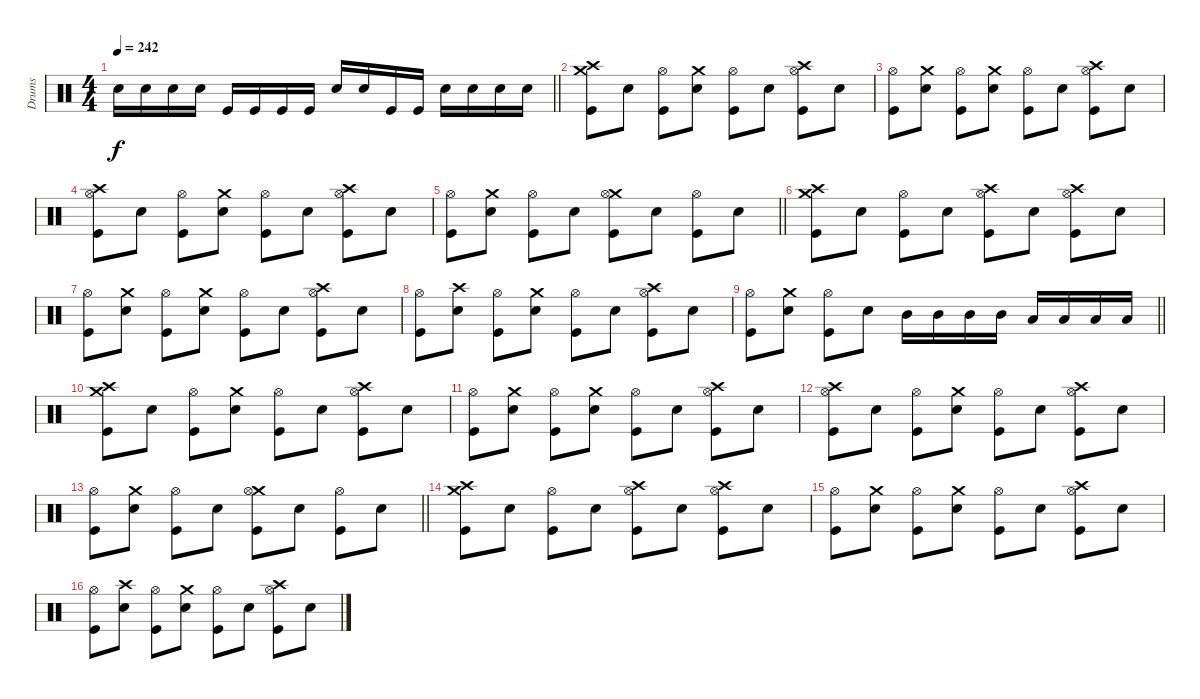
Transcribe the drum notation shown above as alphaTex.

\track ("Drums" "Drums") {instrument percussion}
\staff
\articulation defaults
\ts (4 4)
\tempo 242
\clef neutral
\barLineRight lightlight
\ks c "Electric Snare (hit)".16{dy f} "Electric Snare (hit)".16 "Electric Snare (hit)".16 "Electric Snare (hit)".16 "Kick (hit)".16 "Kick (hit)".16 "Kick (hit)".16 "Kick (hit)".16 "Electric Snare (hit)".16 "Electric Snare (hit)".16 "Kick (hit)".16 "Kick (hit)".16 "Electric Snare (hit)".16 "Electric Snare (hit)".16 "Electric Snare (hit)".16 "Electric Snare (hit)".16
|
\section ("" "")
("Crash high (hit)" "Crash medium (hit)" "Kick (hit)").8 "Electric Snare (hit)".8 ("Hi-Hat (open)" "Kick (hit)").8 ("Crash medium (hit)" "Electric Snare (hit)").8 ("Hi-Hat (open)" "Kick (hit)").8 "Electric Snare (hit)".8 ("Crash high (hit)" "Hi-Hat (open)" "Kick (hit)").8 "Electric Snare (hit)".8 |
("Hi-Hat (open)" "Kick (hit)").8 ("Crash medium (hit)" "Electric Snare (hit)").8 ("Hi-Hat (open)" "Kick (hit)").8 ("Crash medium (hit)" "Electric Snare (hit)").8 ("Hi-Hat (open)" "Kick (hit)").8 "Electric Snare (hit)".8 ("Crash high (hit)" "Hi-Hat (open)" "Kick (hit)").8 "Electric Snare (hit)".8 |
("Crash high (hit)" "Hi-Hat (open)" "Kick (hit)").8 "Electric Snare (hit)".8 ("Hi-Hat (open)" "Kick (hit)").8 ("Crash medium (hit)" "Electric Snare (hit)").8 ("Hi-Hat (open)" "Kick (hit)").8 "Electric Snare (hit)".8 ("Crash high (hit)" "Hi-Hat (open)" "Kick (hit)").8 "Electric Snare (hit)".8 |
\barLineRight lightlight
("Hi-Hat (open)" "Kick (hit)").8 ("Crash medium (hit)" "Electric Snare (hit)").8 ("Hi-Hat (open)" "Kick (hit)").8 "Electric Snare (hit)".8 ("Crash medium (hit)" "Hi-Hat (open)" "Kick (hit)").8 "Electric Snare (hit)".8 ("Hi-Hat (open)" "Kick (hit)").8 "Electric Snare (hit)".8 |
("Crash high (hit)" "Crash medium (hit)" "Kick (hit)").8 "Electric Snare (hit)".8 ("Hi-Hat (open)" "Kick (hit)").8 "Electric Snare (hit)".8 ("Crash high (hit)" "Hi-Hat (open)" "Kick (hit)").8 "Electric Snare (hit)".8 ("Crash high (hit)" "Hi-Hat (open)" "Kick (hit)").8 "Electric Snare (hit)".8 |
("Hi-Hat (open)" "Kick (hit)").8 ("Crash medium (hit)" "Electric Snare (hit)").8 ("Hi-Hat (open)" "Kick (hit)").8 ("Crash medium (hit)" "Electric Snare (hit)").8 ("Hi-Hat (open)" "Kick (hit)").8 "Electric Snare (hit)".8 ("Crash high (hit)" "Hi-Hat (open)" "Kick (hit)").8 "Electric Snare (hit)".8 |
("Hi-Hat (open)" "Kick (hit)").8 ("Crash high (hit)" "Electric Snare (hit)").8 ("Hi-Hat (open)" "Kick (hit)").8 ("Crash medium (hit)" "Electric Snare (hit)").8 ("Hi-Hat (open)" "Kick (hit)").8 "Electric Snare (hit)".8 ("Crash high (hit)" "Hi-Hat (open)" "Kick (hit)").8 "Electric Snare (hit)".8 |
\barLineRight lightlight
("Hi-Hat (open)" "Kick (hit)").8 ("Crash medium (hit)" "Electric Snare (hit)").8 ("Hi-Hat (open)" "Kick (hit)").8 "Electric Snare (hit)".8 "Mid Tom (hit)".16 "Mid Tom (hit)".16 "Mid Tom (hit)".16 "Mid Tom (hit)".16 "Low Tom (hit)".16 "Low Tom (hit)".16 "Low Tom (hit)".16 "Low Tom (hit)".16 |
("Crash high (hit)" "Crash medium (hit)" "Kick (hit)").8 "Electric Snare (hit)".8 ("Hi-Hat (open)" "Kick (hit)").8 ("Crash medium (hit)" "Electric Snare (hit)").8 ("Hi-Hat (open)" "Kick (hit)").8 "Electric Snare (hit)".8 ("Crash high (hit)" "Hi-Hat (open)" "Kick (hit)").8 "Electric Snare (hit)".8 |
("Hi-Hat (open)" "Kick (hit)").8 ("Crash medium (hit)" "Electric Snare (hit)").8 ("Hi-Hat (open)" "Kick (hit)").8 ("Crash medium (hit)" "Electric Snare (hit)").8 ("Hi-Hat (open)" "Kick (hit)").8 "Electric Snare (hit)".8 ("Crash high (hit)" "Hi-Hat (open)" "Kick (hit)").8 "Electric Snare (hit)".8 |
("Crash high (hit)" "Hi-Hat (open)" "Kick (hit)").8 "Electric Snare (hit)".8 ("Hi-Hat (open)" "Kick (hit)").8 ("Crash medium (hit)" "Electric Snare (hit)").8 ("Hi-Hat (open)" "Kick (hit)").8 "Electric Snare (hit)".8 ("Crash high (hit)" "Hi-Hat (open)" "Kick (hit)").8 "Electric Snare (hit)".8 |
\barLineRight lightlight
("Hi-Hat (open)" "Kick (hit)").8 ("Crash medium (hit)" "Electric Snare (hit)").8 ("Hi-Hat (open)" "Kick (hit)").8 "Electric Snare (hit)".8 ("Crash medium (hit)" "Hi-Hat (open)" "Kick (hit)").8 "Electric Snare (hit)".8 ("Hi-Hat (open)" "Kick (hit)").8 "Electric Snare (hit)".8 |
("Crash high (hit)" "Crash medium (hit)" "Kick (hit)").8 "Electric Snare (hit)".8 ("Hi-Hat (open)" "Kick (hit)").8 "Electric Snare (hit)".8 ("Crash high (hit)" "Hi-Hat (open)" "Kick (hit)").8 "Electric Snare (hit)".8 ("Crash high (hit)" "Hi-Hat (open)" "Kick (hit)").8 "Electric Snare (hit)".8 |
("Hi-Hat (open)" "Kick (hit)").8 ("Crash medium (hit)" "Electric Snare (hit)").8 ("Hi-Hat (open)" "Kick (hit)").8 ("Crash medium (hit)" "Electric Snare (hit)").8 ("Hi-Hat (open)" "Kick (hit)").8 "Electric Snare (hit)".8 ("Crash high (hit)" "Hi-Hat (open)" "Kick (hit)").8 "Electric Snare (hit)".8 |
("Hi-Hat (open)" "Kick (hit)").8 ("Crash high (hit)" "Electric Snare (hit)").8 ("Hi-Hat (open)" "Kick (hit)").8 ("Crash medium (hit)" "Electric Snare (hit)").8 ("Hi-Hat (open)" "Kick (hit)").8 "Electric Snare (hit)".8 ("Crash high (hit)" "Hi-Hat (open)" "Kick (hit)").8 "Electric Snare (hit)".8
